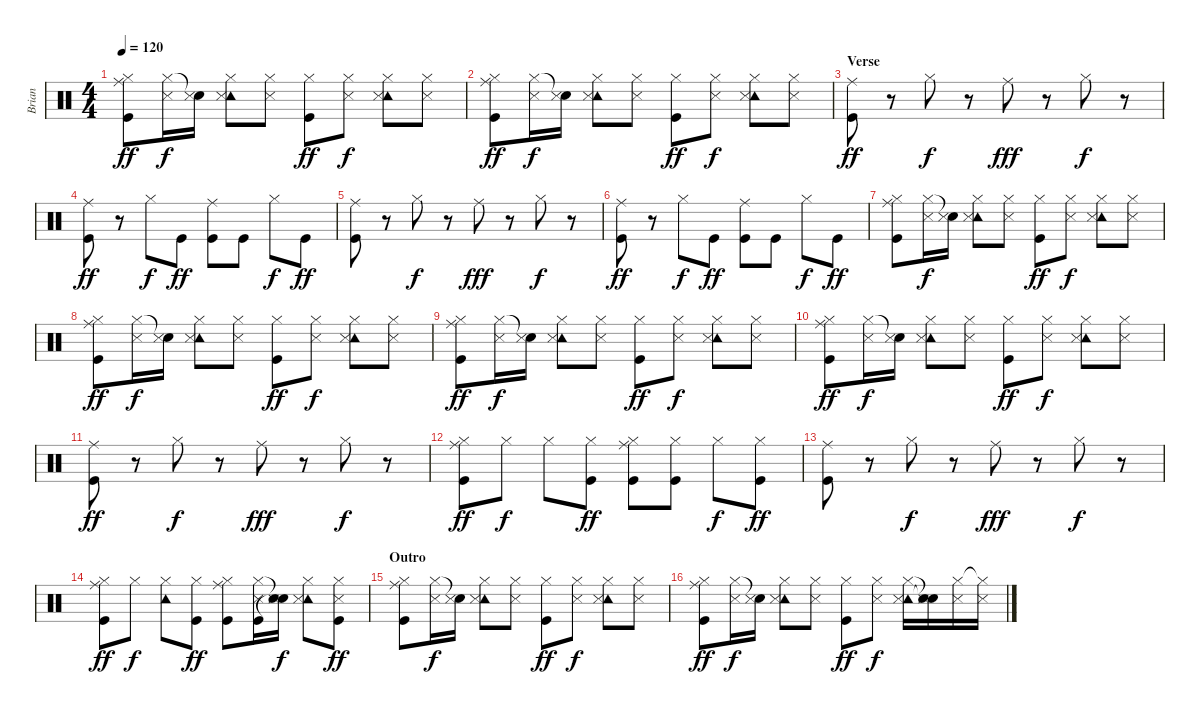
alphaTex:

\track ("Brian" "Brian") {instrument percussion}
\staff {score}
\articulation defaults
\ts (4 4)
\tempo 120
\clef neutral
\ks c
("Ride (middle)" "Hi-Hat (closed)" "Kick (hit)").8{dy ff} ("Hi-Hat (closed)" "Snare (side stick) 3").16{dy f} ("Snare (hit)"{t} "Snare (side stick) 3").16 ("Tambourine (hit)" "Hi-Hat (closed)" "Snare (side stick) 3").8 ("Hi-Hat (closed)" "Snare (side stick) 3").8 ("Hi-Hat (closed)" "Kick (hit)").8{dy ff} ("Hi-Hat (closed)" "Snare (side stick) 3").8{dy f} ("Tambourine (hit)" "Hi-Hat (closed)" "Snare (side stick) 3").8 ("Hi-Hat (closed)" "Snare (side stick) 3").8 |
("Ride (middle)" "Hi-Hat (closed)" "Kick (hit)").8{dy ff} ("Hi-Hat (closed)" "Snare (side stick) 3").16{dy f} ("Snare (hit)"{t} "Snare (side stick) 3").16 ("Tambourine (hit)" "Hi-Hat (closed)" "Snare (side stick) 3").8 ("Hi-Hat (closed)" "Snare (side stick) 3").8 ("Hi-Hat (closed)" "Kick (hit)").8{dy ff} ("Hi-Hat (closed)" "Snare (side stick) 3").8{dy f} ("Tambourine (hit)" "Hi-Hat (closed)" "Snare (side stick) 3").8 ("Hi-Hat (closed)" "Snare (side stick) 3").8 |
\section ("" "Verse")
("Ride (middle)" "Kick (hit)").8{dy ff} r.8 "Hi-Hat (closed)".8{dy f} r.8 "Ride (middle)".8{dy fff} r.8 "Hi-Hat (closed)".8{dy f} r.8 |
("Ride (middle)" "Kick (hit)").8{dy ff} r.8 "Hi-Hat (closed)".8{dy f} "Kick (hit)".8{dy ff} ("Ride (middle)" "Kick (hit)").8 "Kick (hit)".8 "Hi-Hat (closed)".8{dy f} "Kick (hit)".8{dy ff} |
("Ride (middle)" "Kick (hit)").8 r.8 "Hi-Hat (closed)".8{dy f} r.8 "Ride (middle)".8{dy fff} r.8 "Hi-Hat (closed)".8{dy f} r.8 |
("Ride (middle)" "Kick (hit)").8{dy ff} r.8 "Hi-Hat (closed)".8{dy f} "Kick (hit)".8{dy ff} ("Ride (middle)" "Kick (hit)").8 "Kick (hit)".8 "Hi-Hat (closed)".8{dy f} "Kick (hit)".8{dy ff} |
("Ride (middle)" "Hi-Hat (closed)" "Kick (hit)").8 ("Hi-Hat (closed)" "Snare (side stick) 3").16{dy f} ("Snare (hit)"{t} "Snare (side stick) 3").16 ("Tambourine (hit)" "Hi-Hat (closed)" "Snare (side stick) 3").8 ("Hi-Hat (closed)" "Snare (side stick) 3").8 ("Hi-Hat (closed)" "Kick (hit)").8{dy ff} ("Hi-Hat (closed)" "Snare (side stick) 3").8{dy f} ("Tambourine (hit)" "Hi-Hat (closed)" "Snare (side stick) 3").8 ("Hi-Hat (closed)" "Snare (side stick) 3").8 |
("Ride (middle)" "Hi-Hat (closed)" "Kick (hit)").8{dy ff} ("Hi-Hat (closed)" "Snare (side stick) 3").16{dy f} ("Snare (hit)"{t} "Snare (side stick) 3").16 ("Tambourine (hit)" "Hi-Hat (closed)" "Snare (side stick) 3").8 ("Hi-Hat (closed)" "Snare (side stick) 3").8 ("Hi-Hat (closed)" "Kick (hit)").8{dy ff} ("Hi-Hat (closed)" "Snare (side stick) 3").8{dy f} ("Tambourine (hit)" "Hi-Hat (closed)" "Snare (side stick) 3").8 ("Hi-Hat (closed)" "Snare (side stick) 3").8 |
("Ride (middle)" "Hi-Hat (closed)" "Kick (hit)").8{dy ff} ("Hi-Hat (closed)" "Snare (side stick) 3").16{dy f} ("Snare (hit)"{t} "Snare (side stick) 3").16 ("Tambourine (hit)" "Hi-Hat (closed)" "Snare (side stick) 3").8 ("Hi-Hat (closed)" "Snare (side stick) 3").8 ("Hi-Hat (closed)" "Kick (hit)").8{dy ff} ("Hi-Hat (closed)" "Snare (side stick) 3").8{dy f} ("Tambourine (hit)" "Hi-Hat (closed)" "Snare (side stick) 3").8 ("Hi-Hat (closed)" "Snare (side stick) 3").8 |
("Ride (middle)" "Hi-Hat (closed)" "Kick (hit)").8{dy ff} ("Hi-Hat (closed)" "Snare (side stick) 3").16{dy f} ("Snare (hit)"{t} "Snare (side stick) 3").16 ("Tambourine (hit)" "Hi-Hat (closed)" "Snare (side stick) 3").8 ("Hi-Hat (closed)" "Snare (side stick) 3").8 ("Hi-Hat (closed)" "Kick (hit)").8{dy ff} ("Hi-Hat (closed)" "Snare (side stick) 3").8{dy f} ("Tambourine (hit)" "Hi-Hat (closed)" "Snare (side stick) 3").8 ("Hi-Hat (closed)" "Snare (side stick) 3").8 |
("Ride (middle)" "Kick (hit)").8{dy ff} r.8 "Hi-Hat (closed)".8{dy f} r.8 "Ride (middle)".8{dy fff} r.8 "Hi-Hat (closed)".8{dy f} r.8 |
("Ride (middle)" "Hi-Hat (closed)" "Kick (hit)").8{dy ff} "Hi-Hat (closed)".8{dy f} "Hi-Hat (closed)".8 ("Hi-Hat (closed)" "Kick (hit)").8{dy ff} ("Ride (middle)" "Hi-Hat (closed)" "Kick (hit)").8 ("Hi-Hat (closed)" "Kick (hit)").8 "Hi-Hat (closed)".8{dy f} ("Hi-Hat (closed)" "Kick (hit)").8{dy ff} |
("Ride (middle)" "Kick (hit)").8 r.8 "Hi-Hat (closed)".8{dy f} r.8 "Ride (middle)".8{dy fff} r.8 "Hi-Hat (closed)".8{dy f} r.8 |
("Ride (middle)" "Hi-Hat (closed)" "Kick (hit)").8{dy ff} "Hi-Hat (closed)".8{dy f} ("Tambourine (hit)" "Hi-Hat (closed)").8 ("Hi-Hat (closed)" "Kick (hit)").8{dy ff} ("Ride (middle)" "Hi-Hat (closed)" "Kick (hit)").8 ("Hi-Hat (closed)" "Snare (side stick) 3" "Kick (hit)").16 ("Snare (hit)"{t} "Snare (side stick) 3" "Snare (hit)"{t}).16{dy f} ("Tambourine (hit)" "Hi-Hat (closed)" "Snare (side stick) 3").8 ("Hi-Hat (closed)" "Snare (side stick) 3" "Kick (hit)").8{dy ff} |
\section ("" "Outro")
("Ride (middle)" "Hi-Hat (closed)" "Kick (hit)").8 ("Hi-Hat (closed)" "Snare (side stick) 3").16{dy f} ("Snare (hit)"{t} "Snare (side stick) 3").16 ("Tambourine (hit)" "Hi-Hat (closed)" "Snare (side stick) 3").8 ("Hi-Hat (closed)" "Snare (side stick) 3").8 ("Hi-Hat (closed)" "Kick (hit)").8{dy ff} ("Hi-Hat (closed)" "Snare (side stick) 3").8{dy f} ("Tambourine (hit)" "Hi-Hat (closed)" "Snare (side stick) 3").8 ("Hi-Hat (closed)" "Snare (side stick) 3").8 |
("Ride (middle)" "Hi-Hat (closed)" "Kick (hit)").8{dy ff} ("Hi-Hat (closed)" "Snare (side stick) 3").16{dy f} ("Snare (hit)"{t} "Snare (side stick) 3").16 ("Tambourine (hit)" "Hi-Hat (closed)" "Snare (side stick) 3").8 ("Hi-Hat (closed)" "Snare (side stick) 3").8 ("Hi-Hat (closed)" "Kick (hit)").8{dy ff} ("Hi-Hat (closed)" "Snare (side stick) 3").8{dy f} ("Tambourine (hit)" "Hi-Hat (closed)" "Snare (side stick) 3").16 ("Snare (hit)"{t} "Snare (hit)"{t} "Snare (side stick) 3").16 ("Hi-Hat (closed)" "Snare (side stick) 3").16 ("Hi-Hat (closed)"{t} "Snare (side stick) 3").16
